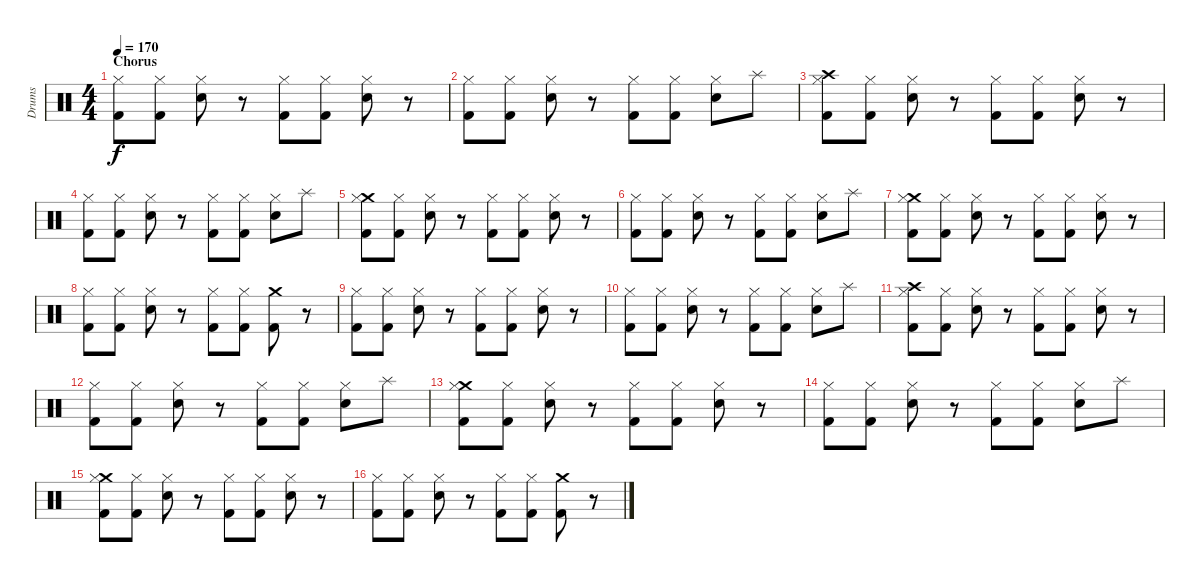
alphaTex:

\track ("Drums" "Drums") {instrument percussion}
\staff {score}
\articulation defaults
\ts (4 4)
\section ("" "Chorus")
\tempo 170
\clef neutral
\ks c
("Hi-Hat (closed)" "Kick (hit) 2").8{dy f} ("Hi-Hat (closed)" "Kick (hit) 2").8 ("Hi-Hat (closed)" "Snare (hit) 2").8 r.8 ("Hi-Hat (closed)" "Kick (hit) 2").8 ("Hi-Hat (closed)" "Kick (hit) 2").8 ("Hi-Hat (closed)" "Snare (hit) 2").8 r.8 |
("Hi-Hat (closed)" "Kick (hit) 2").8 ("Hi-Hat (closed)" "Kick (hit) 2").8 ("Hi-Hat (closed)" "Snare (hit) 2").8 r.8 ("Hi-Hat (closed)" "Kick (hit) 2").8 ("Hi-Hat (closed)" "Kick (hit) 2").8 ("Hi-Hat (closed)" "Snare (hit) 2").8 "Splash (hit)".8 |
("Crash high (hit)" "Hi-Hat (closed)" "Kick (hit) 2").8 ("Hi-Hat (closed)" "Kick (hit) 2").8 ("Hi-Hat (closed)" "Snare (hit) 2").8 r.8 ("Hi-Hat (closed)" "Kick (hit) 2").8 ("Hi-Hat (closed)" "Kick (hit) 2").8 ("Hi-Hat (closed)" "Snare (hit) 2").8 r.8 |
("Hi-Hat (closed)" "Kick (hit) 2").8 ("Hi-Hat (closed)" "Kick (hit) 2").8 ("Hi-Hat (closed)" "Snare (hit) 2").8 r.8 ("Hi-Hat (closed)" "Kick (hit) 2").8 ("Hi-Hat (closed)" "Kick (hit) 2").8 ("Hi-Hat (closed)" "Snare (hit) 2").8 "Splash (hit)".8 |
("Crash medium (hit)" "Hi-Hat (closed)" "Kick (hit) 2").8 ("Hi-Hat (closed)" "Kick (hit) 2").8 ("Hi-Hat (closed)" "Snare (hit) 2").8 r.8 ("Hi-Hat (closed)" "Kick (hit) 2").8 ("Hi-Hat (closed)" "Kick (hit) 2").8 ("Hi-Hat (closed)" "Snare (hit) 2").8 r.8 |
("Hi-Hat (closed)" "Kick (hit) 2").8 ("Hi-Hat (closed)" "Kick (hit) 2").8 ("Hi-Hat (closed)" "Snare (hit) 2").8 r.8 ("Hi-Hat (closed)" "Kick (hit) 2").8 ("Hi-Hat (closed)" "Kick (hit) 2").8 ("Hi-Hat (closed)" "Snare (hit) 2").8 "Splash (hit)".8 |
("Crash medium (hit)" "Hi-Hat (closed)" "Kick (hit) 2").8 ("Hi-Hat (closed)" "Kick (hit) 2").8 ("Hi-Hat (closed)" "Snare (hit) 2").8 r.8 ("Hi-Hat (closed)" "Kick (hit) 2").8 ("Hi-Hat (closed)" "Kick (hit) 2").8 ("Hi-Hat (closed)" "Snare (hit) 2").8 r.8 |
("Hi-Hat (closed)" "Kick (hit) 2").8 ("Hi-Hat (closed)" "Kick (hit) 2").8 ("Hi-Hat (closed)" "Snare (hit) 2").8 r.8 ("Hi-Hat (closed)" "Kick (hit) 2").8 ("Hi-Hat (closed)" "Kick (hit) 2").8 ("Crash medium (hit)" "Kick (hit) 2").8 r.8 |
("Hi-Hat (closed)" "Kick (hit) 2").8 ("Hi-Hat (closed)" "Kick (hit) 2").8 ("Hi-Hat (closed)" "Snare (hit) 2").8 r.8 ("Hi-Hat (closed)" "Kick (hit) 2").8 ("Hi-Hat (closed)" "Kick (hit) 2").8 ("Hi-Hat (closed)" "Snare (hit) 2").8 r.8 |
("Hi-Hat (closed)" "Kick (hit) 2").8 ("Hi-Hat (closed)" "Kick (hit) 2").8 ("Hi-Hat (closed)" "Snare (hit) 2").8 r.8 ("Hi-Hat (closed)" "Kick (hit) 2").8 ("Hi-Hat (closed)" "Kick (hit) 2").8 ("Hi-Hat (closed)" "Snare (hit) 2").8 "Splash (hit)".8 |
("Crash high (hit)" "Hi-Hat (closed)" "Kick (hit) 2").8 ("Hi-Hat (closed)" "Kick (hit) 2").8 ("Hi-Hat (closed)" "Snare (hit) 2").8 r.8 ("Hi-Hat (closed)" "Kick (hit) 2").8 ("Hi-Hat (closed)" "Kick (hit) 2").8 ("Hi-Hat (closed)" "Snare (hit) 2").8 r.8 |
("Hi-Hat (closed)" "Kick (hit) 2").8 ("Hi-Hat (closed)" "Kick (hit) 2").8 ("Hi-Hat (closed)" "Snare (hit) 2").8 r.8 ("Hi-Hat (closed)" "Kick (hit) 2").8 ("Hi-Hat (closed)" "Kick (hit) 2").8 ("Hi-Hat (closed)" "Snare (hit) 2").8 "Splash (hit)".8 |
("Crash medium (hit)" "Hi-Hat (closed)" "Kick (hit) 2").8 ("Hi-Hat (closed)" "Kick (hit) 2").8 ("Hi-Hat (closed)" "Snare (hit) 2").8 r.8 ("Hi-Hat (closed)" "Kick (hit) 2").8 ("Hi-Hat (closed)" "Kick (hit) 2").8 ("Hi-Hat (closed)" "Snare (hit) 2").8 r.8 |
("Hi-Hat (closed)" "Kick (hit) 2").8 ("Hi-Hat (closed)" "Kick (hit) 2").8 ("Hi-Hat (closed)" "Snare (hit) 2").8 r.8 ("Hi-Hat (closed)" "Kick (hit) 2").8 ("Hi-Hat (closed)" "Kick (hit) 2").8 ("Hi-Hat (closed)" "Snare (hit) 2").8 "Splash (hit)".8 |
("Crash medium (hit)" "Hi-Hat (closed)" "Kick (hit) 2").8 ("Hi-Hat (closed)" "Kick (hit) 2").8 ("Hi-Hat (closed)" "Snare (hit) 2").8 r.8 ("Hi-Hat (closed)" "Kick (hit) 2").8 ("Hi-Hat (closed)" "Kick (hit) 2").8 ("Hi-Hat (closed)" "Snare (hit) 2").8 r.8 |
("Hi-Hat (closed)" "Kick (hit) 2").8 ("Hi-Hat (closed)" "Kick (hit) 2").8 ("Hi-Hat (closed)" "Snare (hit) 2").8 r.8 ("Hi-Hat (closed)" "Kick (hit) 2").8 ("Hi-Hat (closed)" "Kick (hit) 2").8 ("Crash medium (hit)" "Kick (hit) 2").8 r.8
